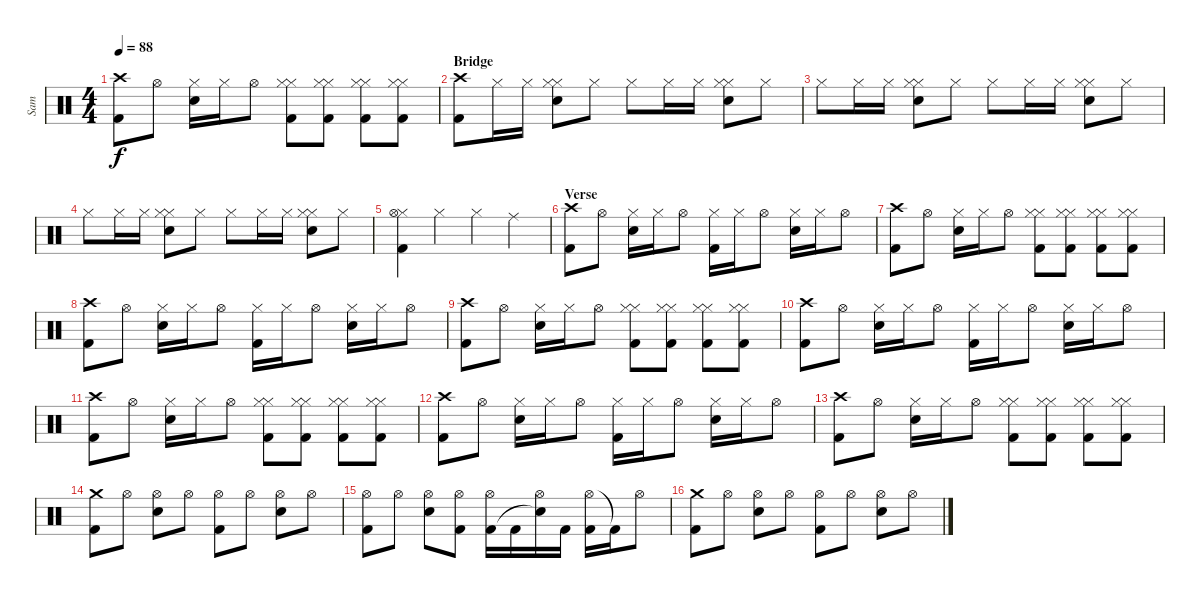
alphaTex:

\track ("Sam" "Sam") {instrument percussion}
\staff {score}
\articulation defaults
\ts (4 4)
\tempo 88
\clef neutral
\ks c
("Crash high (hit)" "Kick (hit) 2").8{dy f} "Hi-Hat (open)".8 ("Hi-Hat (closed)" "Electric Snare (hit)").16 "Hi-Hat (closed)".16 "Hi-Hat (open)".8 ("Hi-Hat (closed)" "Hi-Hat (closed)" "Kick (hit) 2").8 ("Hi-Hat (closed)" "Hi-Hat (closed)" "Kick (hit) 2").8 ("Hi-Hat (closed)" "Hi-Hat (closed)" "Kick (hit) 2").8 ("Hi-Hat (closed)" "Hi-Hat (closed)" "Kick (hit) 2").8 |
\section ("" "Bridge")
("Crash high (hit)" "Kick (hit) 2").8 "Hi-Hat (closed)".16{volume 8} "Hi-Hat (closed)".16 ("Hi-Hat (closed)" "Hi-Hat (closed)" "Electric Snare (hit)").8 "Hi-Hat (closed)".8 "Hi-Hat (closed)".8 "Hi-Hat (closed)".16 "Hi-Hat (closed)".16 ("Hi-Hat (closed)" "Hi-Hat (closed)" "Electric Snare (hit)").8 "Hi-Hat (closed)".8 |
"Hi-Hat (closed)".8 "Hi-Hat (closed)".16 "Hi-Hat (closed)".16 ("Hi-Hat (closed)" "Hi-Hat (closed)" "Electric Snare (hit)").8 "Hi-Hat (closed)".8 "Hi-Hat (closed)".8 "Hi-Hat (closed)".16 "Hi-Hat (closed)".16 ("Hi-Hat (closed)" "Hi-Hat (closed)" "Electric Snare (hit)").8 "Hi-Hat (closed)".8 |
"Hi-Hat (closed)".8 "Hi-Hat (closed)".16 "Hi-Hat (closed)".16 ("Hi-Hat (closed)" "Hi-Hat (closed)" "Electric Snare (hit)").8 "Hi-Hat (closed)".8 "Hi-Hat (closed)".8 "Hi-Hat (closed)".16 "Hi-Hat (closed)".16 ("Hi-Hat (closed)" "Hi-Hat (closed)" "Electric Snare (hit)").8 "Hi-Hat (closed)".8 |
("Hi-Hat (closed)" "Hi-Hat (open)" "Kick (hit) 2").4{volume 16} "Hi-Hat (closed)".4 "Hi-Hat (closed)".4 "Ride (middle)".4 |
\section ("" "Verse")
("Crash high (hit)" "Kick (hit) 2").8 "Hi-Hat (open)".8 ("Hi-Hat (closed)" "Electric Snare (hit)").16 "Hi-Hat (closed)".16 "Hi-Hat (open)".8 ("Hi-Hat (closed)" "Kick (hit) 2").16 "Hi-Hat (closed)".16 "Hi-Hat (open)".8 ("Hi-Hat (closed)" "Electric Snare (hit)").16 "Hi-Hat (closed)".16 "Hi-Hat (open)".8 |
("Crash high (hit)" "Kick (hit) 2").8 "Hi-Hat (open)".8 ("Hi-Hat (closed)" "Electric Snare (hit)").16 "Hi-Hat (closed)".16 "Hi-Hat (open)".8 ("Hi-Hat (closed)" "Hi-Hat (closed)" "Kick (hit) 2").8 ("Hi-Hat (closed)" "Hi-Hat (closed)" "Kick (hit) 2").8 ("Hi-Hat (closed)" "Hi-Hat (closed)" "Kick (hit) 2").8 ("Hi-Hat (closed)" "Hi-Hat (closed)" "Kick (hit) 2").8 |
("Crash high (hit)" "Kick (hit) 2").8 "Hi-Hat (open)".8 ("Hi-Hat (closed)" "Electric Snare (hit)").16 "Hi-Hat (closed)".16 "Hi-Hat (open)".8 ("Hi-Hat (closed)" "Kick (hit) 2").16 "Hi-Hat (closed)".16 "Hi-Hat (open)".8 ("Hi-Hat (closed)" "Electric Snare (hit)").16 "Hi-Hat (closed)".16 "Hi-Hat (open)".8 |
("Crash high (hit)" "Kick (hit) 2").8 "Hi-Hat (open)".8 ("Hi-Hat (closed)" "Electric Snare (hit)").16 "Hi-Hat (closed)".16 "Hi-Hat (open)".8 ("Hi-Hat (closed)" "Hi-Hat (closed)" "Kick (hit) 2").8 ("Hi-Hat (closed)" "Hi-Hat (closed)" "Kick (hit) 2").8 ("Hi-Hat (closed)" "Hi-Hat (closed)" "Kick (hit) 2").8 ("Hi-Hat (closed)" "Hi-Hat (closed)" "Kick (hit) 2").8 |
("Crash high (hit)" "Kick (hit) 2").8 "Hi-Hat (open)".8 ("Hi-Hat (closed)" "Electric Snare (hit)").16 "Hi-Hat (closed)".16 "Hi-Hat (open)".8 ("Hi-Hat (closed)" "Kick (hit) 2").16 "Hi-Hat (closed)".16 "Hi-Hat (open)".8 ("Hi-Hat (closed)" "Electric Snare (hit)").16 "Hi-Hat (closed)".16 "Hi-Hat (open)".8 |
("Crash high (hit)" "Kick (hit) 2").8 "Hi-Hat (open)".8 ("Hi-Hat (closed)" "Electric Snare (hit)").16 "Hi-Hat (closed)".16 "Hi-Hat (open)".8 ("Hi-Hat (closed)" "Hi-Hat (closed)" "Kick (hit) 2").8 ("Hi-Hat (closed)" "Hi-Hat (closed)" "Kick (hit) 2").8 ("Hi-Hat (closed)" "Hi-Hat (closed)" "Kick (hit) 2").8 ("Hi-Hat (closed)" "Hi-Hat (closed)" "Kick (hit) 2").8 |
("Crash high (hit)" "Kick (hit) 2").8 "Hi-Hat (open)".8 ("Hi-Hat (closed)" "Electric Snare (hit)").16 "Hi-Hat (closed)".16 "Hi-Hat (open)".8 ("Hi-Hat (closed)" "Kick (hit) 2").16 "Hi-Hat (closed)".16 "Hi-Hat (open)".8 ("Hi-Hat (closed)" "Electric Snare (hit)").16 "Hi-Hat (closed)".16 "Hi-Hat (open)".8 |
("Crash high (hit)" "Kick (hit) 2").8 "Hi-Hat (open)".8 ("Hi-Hat (closed)" "Electric Snare (hit)").16 "Hi-Hat (closed)".16 "Hi-Hat (open)".8 ("Hi-Hat (closed)" "Hi-Hat (closed)" "Kick (hit) 2").8 ("Hi-Hat (closed)" "Hi-Hat (closed)" "Kick (hit) 2").8 ("Hi-Hat (closed)" "Hi-Hat (closed)" "Kick (hit) 2").8 ("Hi-Hat (closed)" "Hi-Hat (closed)" "Kick (hit) 2").8 |
("Crash medium (hit)" "Kick (hit) 2").8 "Hi-Hat (open)".8 ("Hi-Hat (open)" "Electric Snare (hit)").8 "Hi-Hat (open)".8 ("Hi-Hat (open)" "Kick (hit) 2").8 "Hi-Hat (open)".8 ("Hi-Hat (open)" "Electric Snare (hit)").8 "Hi-Hat (open)".8 |
("Hi-Hat (open)" "Kick (hit) 2").8 "Hi-Hat (open)".8 ("Hi-Hat (open)" "Electric Snare (hit)").8 ("Hi-Hat (open)" "Kick (hit) 2").8 ("Hi-Hat (open)" "Kick (hit) 2").16 "Kick (hit) 2".16 ("Hi-Hat (open)" "Snare (hit)"{t}).16 "Kick (hit) 2".16 ("Hi-Hat (open)" "Kick (hit) 2").16 "Kick (hit) 2"{t}.16 "Hi-Hat (open)".8 |
("Crash medium (hit)" "Kick (hit) 2").8 "Hi-Hat (open)".8 ("Hi-Hat (open)" "Electric Snare (hit)").8 "Hi-Hat (open)".8 ("Hi-Hat (open)" "Kick (hit) 2").8 "Hi-Hat (open)".8 ("Hi-Hat (open)" "Electric Snare (hit)").8 "Hi-Hat (open)".8
